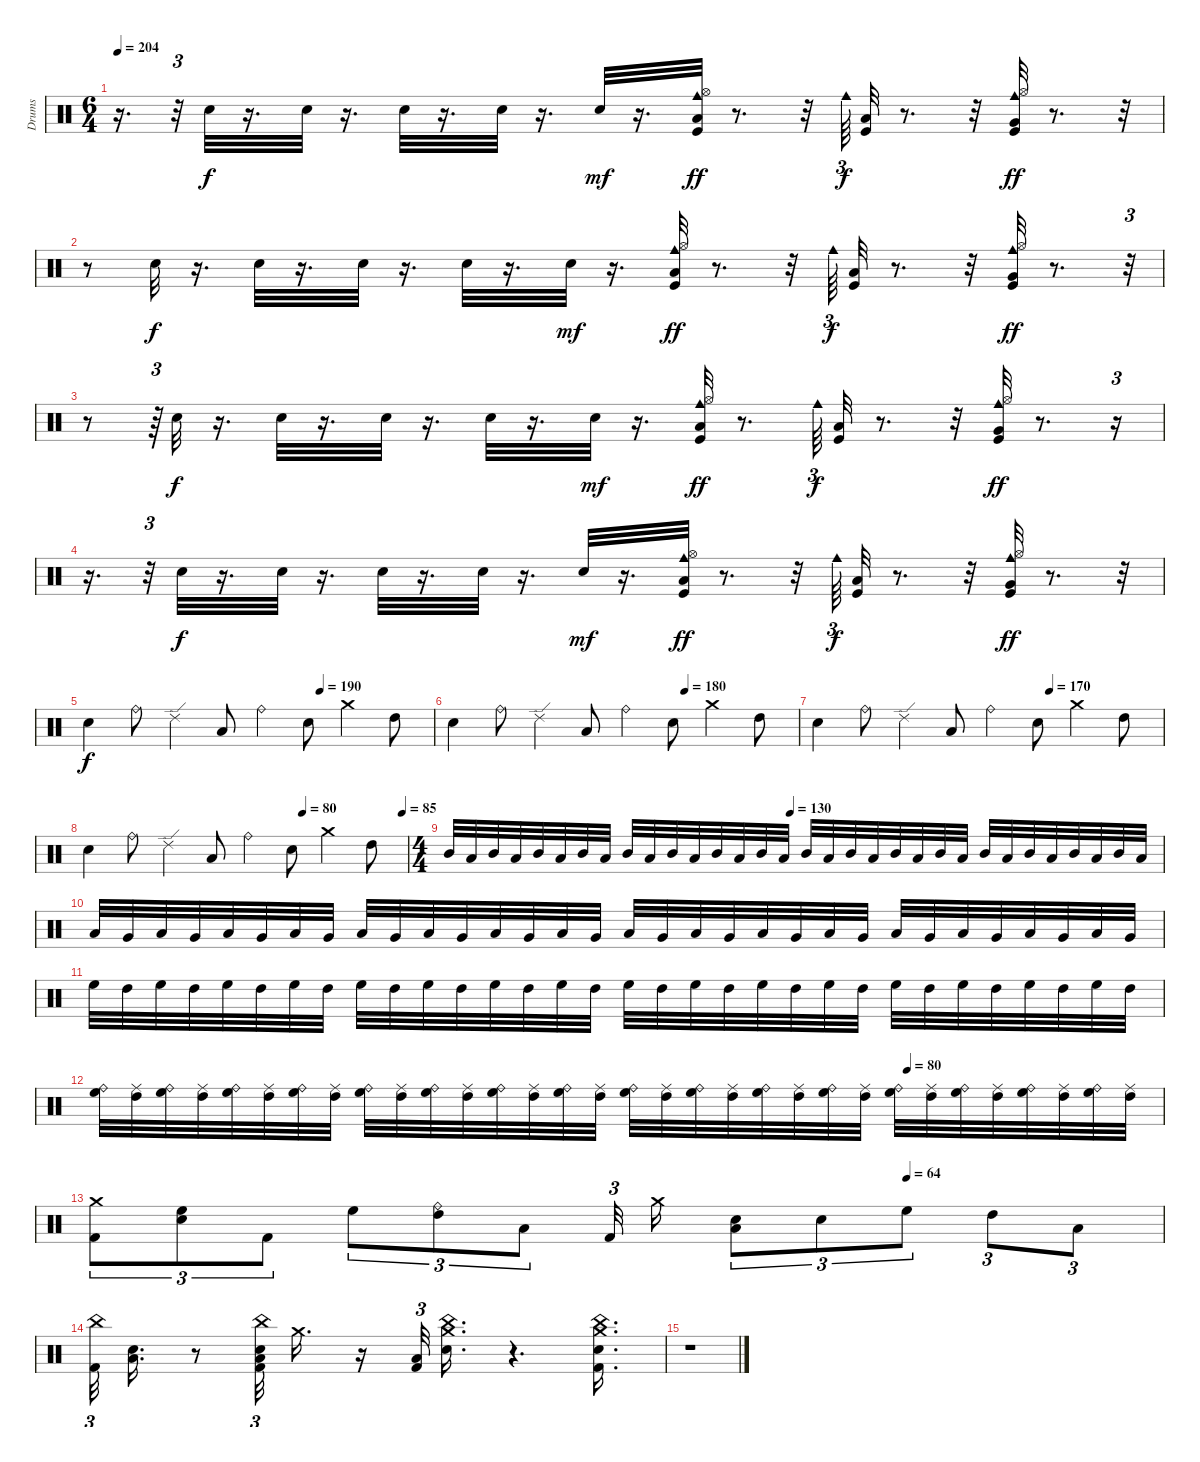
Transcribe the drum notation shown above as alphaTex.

\track ("Drums" "Drums") {instrument percussion}
\staff {score}
\articulation defaults
\ts (6 4)
\tempo 204
\clef neutral
\ks c
r.16{d dy ff} r.32{tu (3 2)} "Snare (hit) 2".32{dy f} r.16{d} "Snare (hit) 2".32 r.16{d} "Snare (hit) 2".32 r.16{d} "Snare (hit) 2".32 r.16{d} "Snare (hit) 2".32{dy mf} r.16{d} ("Kick (hit)" "Hi-Hat (open)" "Cowbell medium (hit)" "Low Floor Tom (hit)").32{dy ff} r.8{d} r.32 "Cowbell medium (hit)".64{tu (3 2) dy f} ("Kick (hit)" "Low Floor Tom (hit)").32 r.8{d} r.32 ("Hi-Hat (open)" "Kick (hit)" "Cowbell medium (hit)" "Very Low Tom (hit)").32{dy ff} r.8{d} r.32 |
r.8 "Snare (hit) 2".32{dy f} r.16{d} "Snare (hit) 2".32 r.16{d} "Snare (hit) 2".32 r.16{d} "Snare (hit) 2".32 r.16{d} "Snare (hit) 2".32{dy mf} r.16{d} ("Kick (hit)" "Hi-Hat (open)" "Cowbell medium (hit)" "Low Floor Tom (hit)").32{dy ff} r.8{d} r.32 "Cowbell medium (hit)".64{tu (3 2) dy f} ("Kick (hit)" "Low Floor Tom (hit)").32 r.8{d} r.32 ("Hi-Hat (open)" "Kick (hit)" "Cowbell medium (hit)" "Very Low Tom (hit)").32{dy ff} r.8{d} r.32{tu (3 2)} |
r.8 r.64{tu (3 2)} "Snare (hit) 2".32{dy f} r.16{d} "Snare (hit) 2".32 r.16{d} "Snare (hit) 2".32 r.16{d} "Snare (hit) 2".32 r.16{d} "Snare (hit) 2".32{dy mf} r.16{d} ("Kick (hit)" "Hi-Hat (open)" "Cowbell medium (hit)" "Low Floor Tom (hit)").32{dy ff} r.8{d} "Cowbell medium (hit)".64{tu (3 2) dy f} ("Kick (hit)" "Low Floor Tom (hit)").32 r.8{d} r.32 ("Hi-Hat (open)" "Kick (hit)" "Cowbell medium (hit)" "Very Low Tom (hit)").32{dy ff} r.8{d} r.16{tu (3 2)} |
r.16{d} r.32{tu (3 2)} "Snare (hit) 2".32{dy f} r.16{d} "Snare (hit) 2".32 r.16{d} "Snare (hit) 2".32 r.16{d} "Snare (hit) 2".32 r.16{d} "Snare (hit) 2".32{dy mf} r.16{d} ("Kick (hit)" "Hi-Hat (open)" "Cowbell medium (hit)" "Low Floor Tom (hit)").32{dy ff} r.8{d} r.32 "Cowbell medium (hit)".64{tu (3 2) dy f} ("Kick (hit)" "Low Floor Tom (hit)").32 r.8{d} r.32 ("Hi-Hat (open)" "Kick (hit)" "Cowbell medium (hit)" "Very Low Tom (hit)").32{dy ff} r.8{d} r.32 |
\tempo (190 0.6736111111111112)
"Electric Snare (hit)".4{dy f} "Ride (bell)".8 "Ride (edge) 2".4 "Low Tom (hit)".8 "Ride (bell)".4 "Electric Snare (hit)".8 "Crash medium (hit)".4 "High Tom (hit)".8 |
\tempo (180 0.6736111111111112)
"Electric Snare (hit)".4 "Ride (bell)".8 "Ride (edge) 2".4 "Low Tom (hit)".8 "Ride (bell)".4 "Electric Snare (hit)".8 "Crash medium (hit)".4 "High Tom (hit)".8 |
\tempo (170 0.6736111111111112)
"Electric Snare (hit)".4 "Ride (bell)".8 "Ride (edge) 2".4 "Low Tom (hit)".8 "Ride (bell)".4 "Electric Snare (hit)".8 "Crash medium (hit)".4 "High Tom (hit)".8 |
\tempo (80 0.6736111111111112)
\tempo (85 0.9861111111111112)
"Electric Snare (hit)".4 "Ride (bell)".8 "Ride (edge) 2".4 "Low Tom (hit)".8 "Ride (bell)".4 "Electric Snare (hit)".8 "Crash medium (hit)".4 "High Tom (hit)".8 |
\ts (4 4)
\tempo (130 0.4791666666666667)
"Mid Tom (hit)".32 "Low Tom (hit)".32 "Mid Tom (hit)".32 "Low Tom (hit)".32 "Mid Tom (hit)".32 "Low Tom (hit)".32 "Mid Tom (hit)".32 "Low Tom (hit)".32 "Mid Tom (hit)".32 "Low Tom (hit)".32 "Mid Tom (hit)".32 "Low Tom (hit)".32 "Mid Tom (hit)".32 "Low Tom (hit)".32 "Mid Tom (hit)".32 "Low Tom (hit)".32 "Mid Tom (hit)".32 "Low Tom (hit)".32 "Mid Tom (hit)".32 "Low Tom (hit)".32 "Mid Tom (hit)".32 "Low Tom (hit)".32 "Mid Tom (hit)".32 "Low Tom (hit)".32 "Mid Tom (hit)".32 "Low Tom (hit)".32 "Mid Tom (hit)".32 "Low Tom (hit)".32 "Mid Tom (hit)".32 "Low Tom (hit)".32 "Mid Tom (hit)".32 "Low Tom (hit)".32 |
"Low Tom (hit)".32 "Very Low Tom (hit)".32 "Low Tom (hit)".32 "Very Low Tom (hit)".32 "Low Tom (hit)".32 "Very Low Tom (hit)".32 "Low Tom (hit)".32 "Very Low Tom (hit)".32 "Low Tom (hit)".32 "Very Low Tom (hit)".32 "Low Tom (hit)".32 "Very Low Tom (hit)".32 "Low Tom (hit)".32 "Very Low Tom (hit)".32 "Low Tom (hit)".32 "Very Low Tom (hit)".32 "Low Tom (hit)".32 "Very Low Tom (hit)".32 "Low Tom (hit)".32 "Very Low Tom (hit)".32 "Low Tom (hit)".32 "Very Low Tom (hit)".32 "Low Tom (hit)".32 "Very Low Tom (hit)".32 "Low Tom (hit)".32 "Very Low Tom (hit)".32 "Low Tom (hit)".32 "Very Low Tom (hit)".32 "Low Tom (hit)".32 "Very Low Tom (hit)".32 "Low Tom (hit)".32 "Very Low Tom (hit)".32 |
"High Floor Tom (hit)".32 "High Tom (hit)".32 "High Floor Tom (hit)".32 "High Tom (hit)".32 "High Floor Tom (hit)".32 "High Tom (hit)".32 "High Floor Tom (hit)".32 "High Tom (hit)".32 "High Floor Tom (hit)".32 "High Tom (hit)".32 "High Floor Tom (hit)".32 "High Tom (hit)".32 "High Floor Tom (hit)".32 "High Tom (hit)".32 "High Floor Tom (hit)".32 "High Tom (hit)".32 "High Floor Tom (hit)".32 "High Tom (hit)".32 "High Floor Tom (hit)".32 "High Tom (hit)".32 "High Floor Tom (hit)".32 "High Tom (hit)".32 "High Floor Tom (hit)".32 "High Tom (hit)".32 "High Floor Tom (hit)".32 "High Tom (hit)".32 "High Floor Tom (hit)".32 "High Tom (hit)".32 "High Floor Tom (hit)".32 "High Tom (hit)".32 "High Floor Tom (hit)".32 "High Tom (hit)".32 |
\tempo (80 0.7604166666666666)
("Ride (bell)" "High Floor Tom (hit)").32 ("Ride (middle)" "High Tom (hit)").32 ("Ride (bell)" "High Floor Tom (hit)").32 ("Ride (middle)" "High Tom (hit)").32 ("Ride (bell)" "High Floor Tom (hit)").32 ("Ride (middle)" "High Tom (hit)").32 ("Ride (bell)" "High Floor Tom (hit)").32 ("Ride (middle)" "High Tom (hit)").32 ("Ride (bell)" "High Floor Tom (hit)").32 ("Ride (middle)" "High Tom (hit)").32 ("Ride (bell)" "High Floor Tom (hit)").32 ("Ride (middle)" "High Tom (hit)").32 ("Ride (bell)" "High Floor Tom (hit)").32 ("Ride (middle)" "High Tom (hit)").32 ("Ride (bell)" "High Floor Tom (hit)").32 ("Ride (middle)" "High Tom (hit)").32 ("Ride (bell)" "High Floor Tom (hit)").32 ("Ride (middle)" "High Tom (hit)").32 ("Ride (bell)" "High Floor Tom (hit)").32 ("Ride (middle)" "High Tom (hit)").32 ("Ride (bell)" "High Floor Tom (hit)").32 ("Ride (middle)" "High Tom (hit)").32 ("Ride (bell)" "High Floor Tom (hit)").32 ("Ride (middle)" "High Tom (hit)").32 ("Ride (bell)" "High Floor Tom (hit)").32 ("Ride (middle)" "High Tom (hit)").32 ("Ride (bell)" "High Floor Tom (hit)").32 ("Ride (middle)" "High Tom (hit)").32 ("Ride (bell)" "High Floor Tom (hit)").32 ("Ride (middle)" "High Tom (hit)").32 ("Ride (bell)" "High Floor Tom (hit)").32 ("Ride (middle)" "High Tom (hit)").32 |
\tempo (64 0.7604166666666666)
("Kick (hit) 2" "Crash medium (hit)").8{tu (3 2)} ("Snare (hit) 2" "High Floor Tom (hit)").8{tu (3 2)} "Kick (hit) 2".8{tu (3 2)} "High Floor Tom (hit)".8{tu (3 2)} ("Ride (bell)" "High Tom (hit)").8{tu (3 2)} "Low Tom (hit)".8{tu (3 2)} "Kick (hit) 2".32{tu (3 2)} "Crash medium (hit)".16 ("Snare (hit) 2" "Low Tom (hit)").8{tu (3 2)} "Electric Snare (hit)".8{tu (3 2)} "High Floor Tom (hit)".8{tu (3 2)} "High Tom (hit)".8{tu (3 2)} "Low Tom (hit)".8{tu (3 2)} |
("China (hit)" "Kick (hit) 2").32{tu (3 2)} ("Low Tom (hit)" "Snare (hit) 2").16{d} r.8 ("China (hit)" "Low Tom (hit)" "Snare (hit) 2" "Kick (hit) 2").32{tu (3 2)} "Crash medium (hit)".16{d} r.16 ("Low Tom (hit)" "Kick (hit) 2").32{tu (3 2)} ("China (hit)" "Snare (hit) 2" "Crash medium (hit)").16{d} r.4{d} ("China (hit)" "Crash medium (hit)" "Snare (hit) 2" "Kick (hit) 2").16{d} |
r.1
